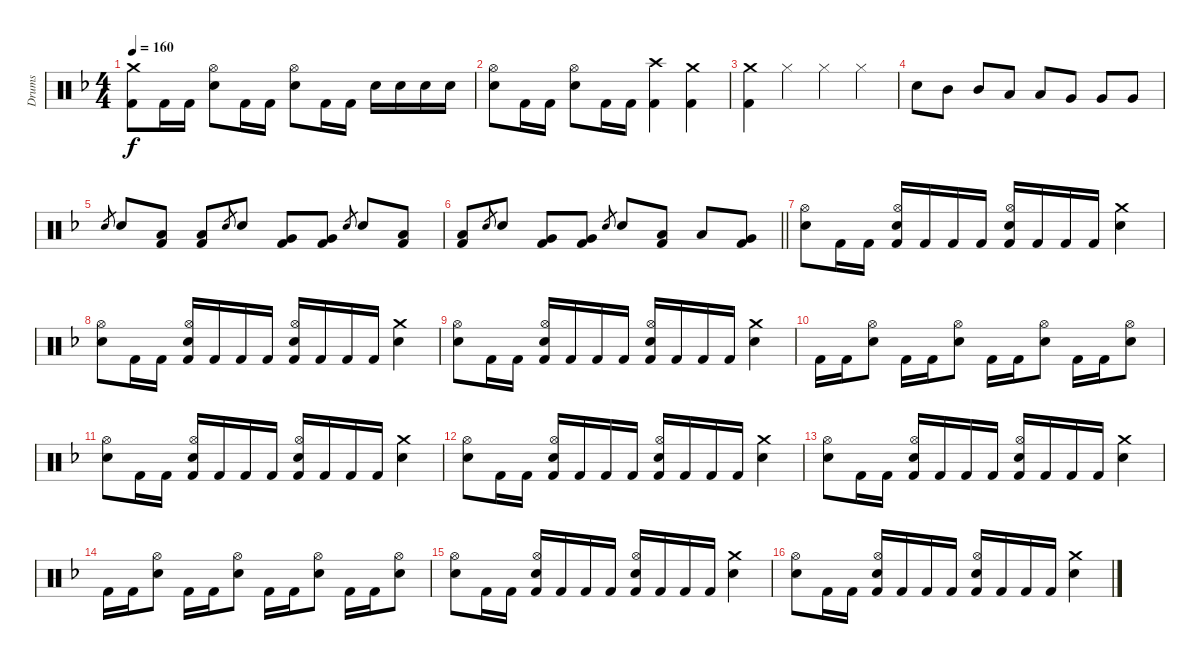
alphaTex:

\track ("Drums" "Drums") {instrument percussion}
\staff {score}
\articulation defaults
\ts (4 4)
\tempo 160
\clef neutral
\ks f
("Crash medium (hit)" "Kick (hit) 2").8{dy f} "Kick (hit) 2".16 "Kick (hit) 2".16 ("Hi-Hat (open)" "Electric Snare (hit)").8 "Kick (hit) 2".16 "Kick (hit) 2".16 ("Hi-Hat (open)" "Electric Snare (hit)").8 "Kick (hit) 2".16 "Kick (hit) 2".16 "Electric Snare (hit)".16 "Electric Snare (hit)".16 "Electric Snare (hit)".16 "Electric Snare (hit)".16 |
("Hi-Hat (open)" "Electric Snare (hit)").8 "Kick (hit) 2".16 "Kick (hit) 2".16 ("Hi-Hat (open)" "Electric Snare (hit)").8 "Kick (hit) 2".16 "Kick (hit) 2".16 ("Crash high (hit)" "Kick (hit) 2").4 ("Crash medium (hit)" "Kick (hit) 2").4 |
("Crash medium (hit)" "Kick (hit) 2").4 "Hi-Hat (closed)".4 "Hi-Hat (closed)".4 "Hi-Hat (closed)".4 |
"Electric Snare (hit)".8 "Mid Tom (hit)".8 "Mid Tom (hit)".8 "Low Tom (hit)".8 "Low Tom (hit)".8 "Very Low Tom (hit)".8 "Very Low Tom (hit)".8 "Very Low Tom (hit)".8 |
"Electric Snare (hit)".8{gr} "Electric Snare (hit)".8 ("Low Tom (hit)" "Kick (hit) 2").8 ("Low Tom (hit)" "Kick (hit) 2").8 "Electric Snare (hit)".8{gr} "Electric Snare (hit)".8 ("Very Low Tom (hit)" "Kick (hit) 2").8 ("Very Low Tom (hit)" "Kick (hit) 2").8 "Electric Snare (hit)".8{gr} "Electric Snare (hit)".8 ("Low Floor Tom (hit)" "Kick (hit) 2").8 |
\barLineRight lightlight
("Low Floor Tom (hit)" "Kick (hit) 2").8 "Electric Snare (hit)".8{gr} "Electric Snare (hit)".8 ("Very Low Tom (hit)" "Kick (hit) 2").8 ("Very Low Tom (hit)" "Kick (hit) 2").8 "Electric Snare (hit)".8{gr} "Electric Snare (hit)".8 ("Low Tom (hit)" "Kick (hit) 2").8 "Low Tom (hit)".8 ("Very Low Tom (hit)" "Kick (hit) 2").8 |
("Hi-Hat (open)" "Electric Snare (hit)").8 "Kick (hit) 2".16 "Kick (hit) 2".16 ("Hi-Hat (open)" "Electric Snare (hit)" "Kick (hit) 2").16 "Kick (hit) 2".16 "Kick (hit) 2".16 "Kick (hit) 2".16 ("Hi-Hat (open)" "Electric Snare (hit)" "Kick (hit) 2").16 "Kick (hit) 2".16 "Kick (hit) 2".16 "Kick (hit) 2".16 ("Crash medium (hit)" "Electric Snare (hit)").4 |
("Hi-Hat (open)" "Electric Snare (hit)").8 "Kick (hit) 2".16 "Kick (hit) 2".16 ("Hi-Hat (open)" "Electric Snare (hit)" "Kick (hit) 2").16 "Kick (hit) 2".16 "Kick (hit) 2".16 "Kick (hit) 2".16 ("Hi-Hat (open)" "Electric Snare (hit)" "Kick (hit) 2").16 "Kick (hit) 2".16 "Kick (hit) 2".16 "Kick (hit) 2".16 ("Crash medium (hit)" "Electric Snare (hit)").4 |
("Hi-Hat (open)" "Electric Snare (hit)").8 "Kick (hit) 2".16 "Kick (hit) 2".16 ("Hi-Hat (open)" "Electric Snare (hit)" "Kick (hit) 2").16 "Kick (hit) 2".16 "Kick (hit) 2".16 "Kick (hit) 2".16 ("Hi-Hat (open)" "Electric Snare (hit)" "Kick (hit) 2").16 "Kick (hit) 2".16 "Kick (hit) 2".16 "Kick (hit) 2".16 ("Crash medium (hit)" "Electric Snare (hit)").4 |
"Kick (hit) 2".16 "Kick (hit) 2".16 ("Hi-Hat (open)" "Electric Snare (hit)").8 "Kick (hit) 2".16 "Kick (hit) 2".16 ("Hi-Hat (open)" "Electric Snare (hit)").8 "Kick (hit) 2".16 "Kick (hit) 2".16 ("Hi-Hat (open)" "Electric Snare (hit)").8 "Kick (hit) 2".16 "Kick (hit) 2".16 ("Hi-Hat (open)" "Electric Snare (hit)").8 |
("Hi-Hat (open)" "Electric Snare (hit)").8 "Kick (hit) 2".16 "Kick (hit) 2".16 ("Hi-Hat (open)" "Electric Snare (hit)" "Kick (hit) 2").16 "Kick (hit) 2".16 "Kick (hit) 2".16 "Kick (hit) 2".16 ("Hi-Hat (open)" "Electric Snare (hit)" "Kick (hit) 2").16 "Kick (hit) 2".16 "Kick (hit) 2".16 "Kick (hit) 2".16 ("Crash medium (hit)" "Electric Snare (hit)").4 |
("Hi-Hat (open)" "Electric Snare (hit)").8 "Kick (hit) 2".16 "Kick (hit) 2".16 ("Hi-Hat (open)" "Electric Snare (hit)" "Kick (hit) 2").16 "Kick (hit) 2".16 "Kick (hit) 2".16 "Kick (hit) 2".16 ("Hi-Hat (open)" "Electric Snare (hit)" "Kick (hit) 2").16 "Kick (hit) 2".16 "Kick (hit) 2".16 "Kick (hit) 2".16 ("Crash medium (hit)" "Electric Snare (hit)").4 |
("Hi-Hat (open)" "Electric Snare (hit)").8 "Kick (hit) 2".16 "Kick (hit) 2".16 ("Hi-Hat (open)" "Electric Snare (hit)" "Kick (hit) 2").16 "Kick (hit) 2".16 "Kick (hit) 2".16 "Kick (hit) 2".16 ("Hi-Hat (open)" "Electric Snare (hit)" "Kick (hit) 2").16 "Kick (hit) 2".16 "Kick (hit) 2".16 "Kick (hit) 2".16 ("Crash medium (hit)" "Electric Snare (hit)").4 |
"Kick (hit) 2".16 "Kick (hit) 2".16 ("Hi-Hat (open)" "Electric Snare (hit)").8 "Kick (hit) 2".16 "Kick (hit) 2".16 ("Hi-Hat (open)" "Electric Snare (hit)").8 "Kick (hit) 2".16 "Kick (hit) 2".16 ("Hi-Hat (open)" "Electric Snare (hit)").8 "Kick (hit) 2".16 "Kick (hit) 2".16 ("Hi-Hat (open)" "Electric Snare (hit)").8 |
("Hi-Hat (open)" "Electric Snare (hit)").8 "Kick (hit) 2".16 "Kick (hit) 2".16 ("Hi-Hat (open)" "Electric Snare (hit)" "Kick (hit) 2").16 "Kick (hit) 2".16 "Kick (hit) 2".16 "Kick (hit) 2".16 ("Hi-Hat (open)" "Electric Snare (hit)" "Kick (hit) 2").16 "Kick (hit) 2".16 "Kick (hit) 2".16 "Kick (hit) 2".16 ("Crash medium (hit)" "Electric Snare (hit)").4 |
("Hi-Hat (open)" "Electric Snare (hit)").8 "Kick (hit) 2".16 "Kick (hit) 2".16 ("Hi-Hat (open)" "Electric Snare (hit)" "Kick (hit) 2").16 "Kick (hit) 2".16 "Kick (hit) 2".16 "Kick (hit) 2".16 ("Hi-Hat (open)" "Electric Snare (hit)" "Kick (hit) 2").16 "Kick (hit) 2".16 "Kick (hit) 2".16 "Kick (hit) 2".16 ("Crash medium (hit)" "Electric Snare (hit)").4
